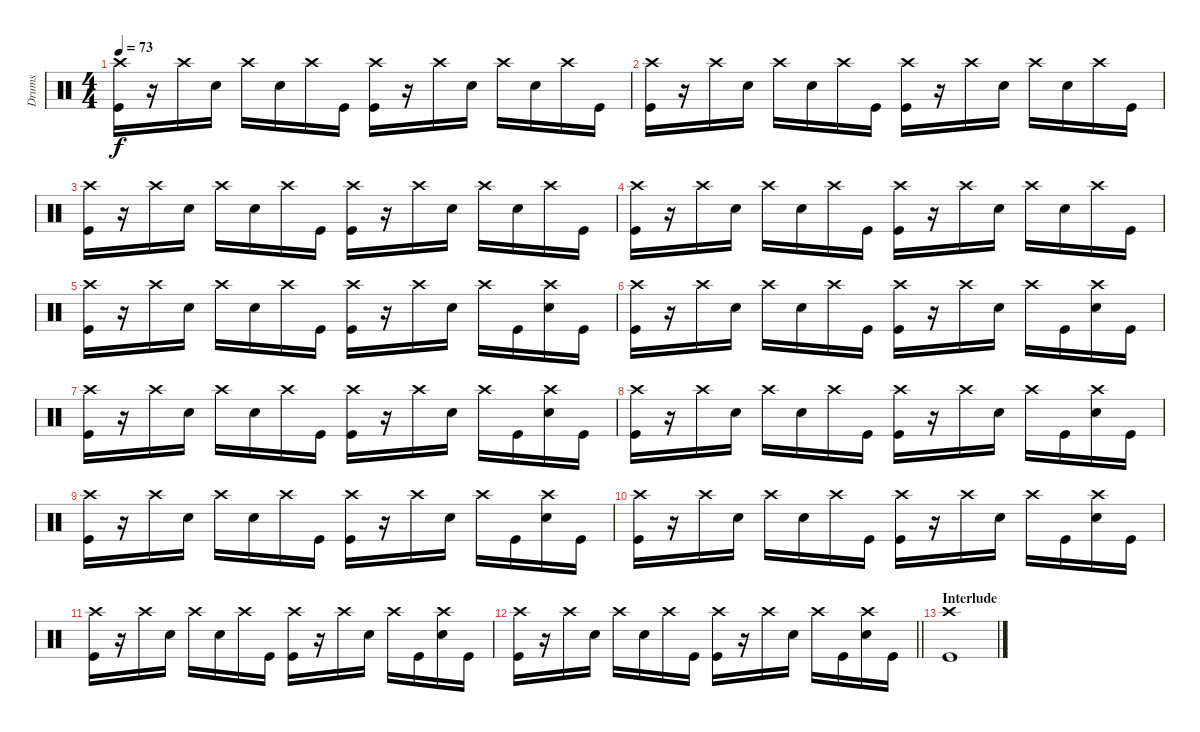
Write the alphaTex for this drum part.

\track ("Drums" "Drums") {instrument percussion}
\staff {score}
\articulation defaults
\ts (4 4)
\tempo 73
\clef neutral
\ks c
("Crash high (hit)" "Kick (hit)").16{dy f} r.16 "Crash high (hit)".16 "Snare (hit) 2".16 "Crash high (hit)".16 "Snare (hit) 2".16 "Crash high (hit)".16 "Kick (hit)".16 ("Crash high (hit)" "Kick (hit)").16 r.16 "Crash high (hit)".16 "Snare (hit) 2".16 "Crash high (hit)".16 "Snare (hit) 2".16 "Crash high (hit)".16 "Kick (hit)".16 |
("Crash high (hit)" "Kick (hit)").16 r.16 "Crash high (hit)".16 "Snare (hit) 2".16 "Crash high (hit)".16 "Snare (hit) 2".16 "Crash high (hit)".16 "Kick (hit)".16 ("Crash high (hit)" "Kick (hit)").16 r.16 "Crash high (hit)".16 "Snare (hit) 2".16 "Crash high (hit)".16 "Snare (hit) 2".16 "Crash high (hit)".16 "Kick (hit)".16 |
("Crash high (hit)" "Kick (hit)").16 r.16 "Crash high (hit)".16 "Snare (hit) 2".16 "Crash high (hit)".16 "Snare (hit) 2".16 "Crash high (hit)".16 "Kick (hit)".16 ("Crash high (hit)" "Kick (hit)").16 r.16 "Crash high (hit)".16 "Snare (hit) 2".16 "Crash high (hit)".16 "Snare (hit) 2".16 "Crash high (hit)".16 "Kick (hit)".16 |
("Crash high (hit)" "Kick (hit)").16 r.16 "Crash high (hit)".16 "Snare (hit) 2".16 "Crash high (hit)".16 "Snare (hit) 2".16 "Crash high (hit)".16 "Kick (hit)".16 ("Crash high (hit)" "Kick (hit)").16 r.16 "Crash high (hit)".16 "Snare (hit) 2".16 "Crash high (hit)".16 "Snare (hit) 2".16 "Crash high (hit)".16 "Kick (hit)".16 |
("Crash high (hit)" "Kick (hit)").16 r.16 "Crash high (hit)".16 "Snare (hit) 2".16 "Crash high (hit)".16 "Snare (hit) 2".16 "Crash high (hit)".16 "Kick (hit)".16 ("Crash high (hit)" "Kick (hit)").16 r.16 "Crash high (hit)".16 "Snare (hit) 2".16 "Crash high (hit)".16 "Kick (hit)".16 ("Crash high (hit)" "Snare (hit) 2").16 "Kick (hit)".16 |
("Crash high (hit)" "Kick (hit)").16 r.16 "Crash high (hit)".16 "Snare (hit) 2".16 "Crash high (hit)".16 "Snare (hit) 2".16 "Crash high (hit)".16 "Kick (hit)".16 ("Crash high (hit)" "Kick (hit)").16 r.16 "Crash high (hit)".16 "Snare (hit) 2".16 "Crash high (hit)".16 "Kick (hit)".16 ("Crash high (hit)" "Snare (hit) 2").16 "Kick (hit)".16 |
("Crash high (hit)" "Kick (hit)").16 r.16 "Crash high (hit)".16 "Snare (hit) 2".16 "Crash high (hit)".16 "Snare (hit) 2".16 "Crash high (hit)".16 "Kick (hit)".16 ("Crash high (hit)" "Kick (hit)").16 r.16 "Crash high (hit)".16 "Snare (hit) 2".16 "Crash high (hit)".16 "Kick (hit)".16 ("Crash high (hit)" "Snare (hit) 2").16 "Kick (hit)".16 |
("Crash high (hit)" "Kick (hit)").16 r.16 "Crash high (hit)".16 "Snare (hit) 2".16 "Crash high (hit)".16 "Snare (hit) 2".16 "Crash high (hit)".16 "Kick (hit)".16 ("Crash high (hit)" "Kick (hit)").16 r.16 "Crash high (hit)".16 "Snare (hit) 2".16 "Crash high (hit)".16 "Kick (hit)".16 ("Crash high (hit)" "Snare (hit) 2").16 "Kick (hit)".16 |
("Crash high (hit)" "Kick (hit)").16 r.16 "Crash high (hit)".16 "Snare (hit) 2".16 "Crash high (hit)".16 "Snare (hit) 2".16 "Crash high (hit)".16 "Kick (hit)".16 ("Crash high (hit)" "Kick (hit)").16 r.16 "Crash high (hit)".16 "Snare (hit) 2".16 "Crash high (hit)".16 "Kick (hit)".16 ("Crash high (hit)" "Snare (hit) 2").16 "Kick (hit)".16 |
("Crash high (hit)" "Kick (hit)").16 r.16 "Crash high (hit)".16 "Snare (hit) 2".16 "Crash high (hit)".16 "Snare (hit) 2".16 "Crash high (hit)".16 "Kick (hit)".16 ("Crash high (hit)" "Kick (hit)").16 r.16 "Crash high (hit)".16 "Snare (hit) 2".16 "Crash high (hit)".16 "Kick (hit)".16 ("Crash high (hit)" "Snare (hit) 2").16 "Kick (hit)".16 |
("Crash high (hit)" "Kick (hit)").16 r.16 "Crash high (hit)".16 "Snare (hit) 2".16 "Crash high (hit)".16 "Snare (hit) 2".16 "Crash high (hit)".16 "Kick (hit)".16 ("Crash high (hit)" "Kick (hit)").16 r.16 "Crash high (hit)".16 "Snare (hit) 2".16 "Crash high (hit)".16 "Kick (hit)".16 ("Crash high (hit)" "Snare (hit) 2").16 "Kick (hit)".16 |
\barLineRight lightlight
("Crash high (hit)" "Kick (hit)").16 r.16 "Crash high (hit)".16 "Snare (hit) 2".16 "Crash high (hit)".16 "Snare (hit) 2".16 "Crash high (hit)".16 "Kick (hit)".16 ("Crash high (hit)" "Kick (hit)").16 r.16 "Crash high (hit)".16 "Snare (hit) 2".16 "Crash high (hit)".16 "Kick (hit)".16 ("Crash high (hit)" "Snare (hit) 2").16 "Kick (hit)".16 |
\section ("" "Interlude")
("Crash high (hit)" "Kick (hit)").1
